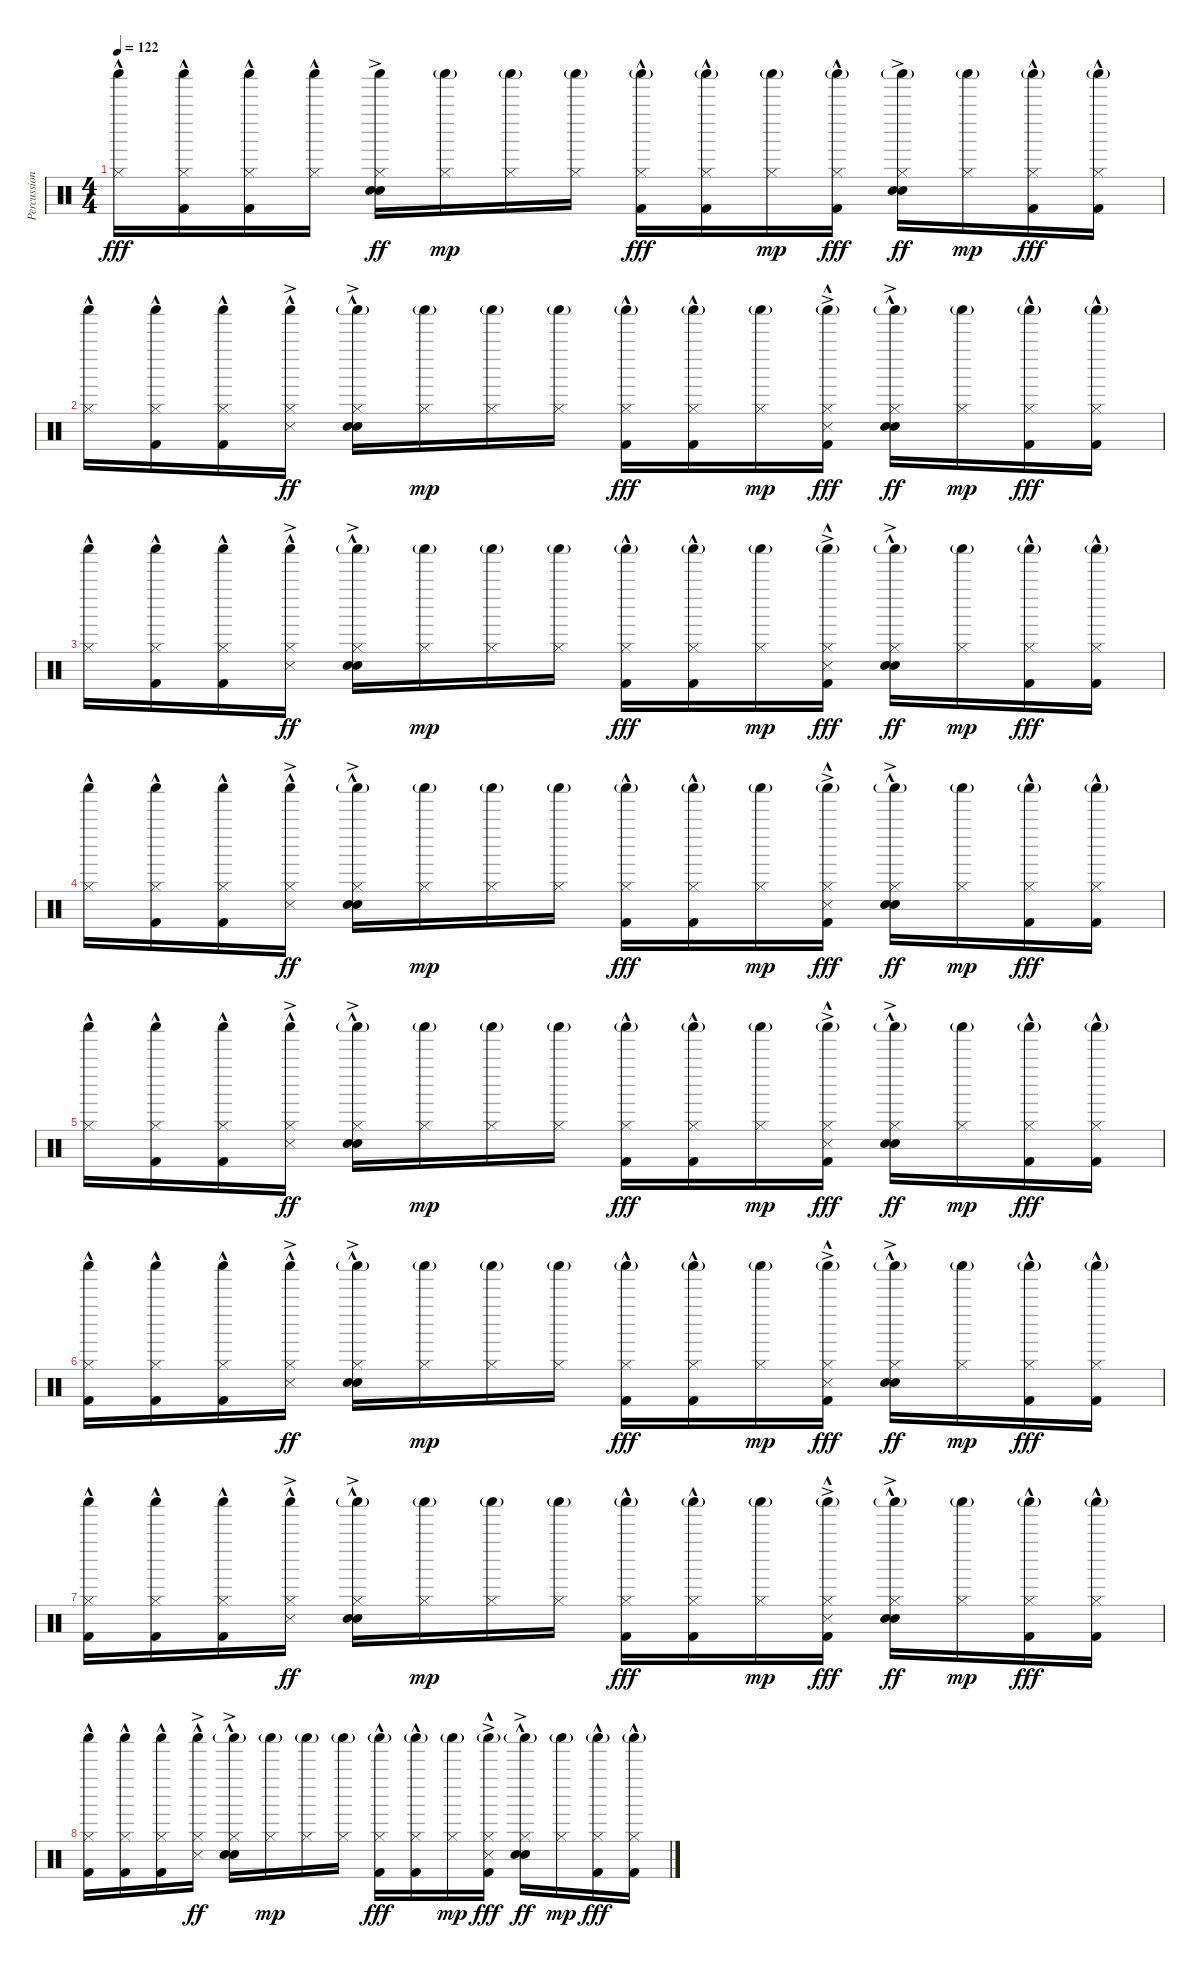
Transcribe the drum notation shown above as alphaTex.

\track ("Percussion" "Percussion") {instrument percussion}
\staff {score}
\articulation defaults
\ts (4 4)
\tempo 122
\clef neutral
\ks c
("Shaker (hit)" "Hi-Hat (closed)"{hac}).16{dy fff} ("Shaker (hit)" "Hi-Hat (closed)"{hac} "Kick (hit) 2"{hac}).16 ("Shaker (hit)" "Hi-Hat (closed)"{hac} "Kick (hit) 2"{hac}).16 ("Shaker (hit)" "Hi-Hat (closed)"{hac}).16 ("Shaker (hit)" "Hi-Hat (closed)" "Hand Clap (hit)" "Snare (hit) 2"{ac}).16{dy ff} ("Shaker (hit)"{g} "Hi-Hat (closed)").16{dy mp} ("Shaker (hit)"{g} "Hi-Hat (closed)").16 ("Shaker (hit)"{g} "Hi-Hat (closed)").16 ("Shaker (hit)"{g} "Hi-Hat (closed)" "Kick (hit) 2"{hac}).16{dy fff} ("Shaker (hit)"{g} "Hi-Hat (closed)" "Kick (hit) 2"{hac}).16 ("Shaker (hit)"{g} "Hi-Hat (closed)").16{dy mp} ("Shaker (hit)"{g} "Hi-Hat (closed)" "Kick (hit) 2"{hac}).16{dy fff} ("Shaker (hit)"{g} "Hi-Hat (closed)" "Hand Clap (hit)"{ac} "Snare (hit) 2"{ac}).16{dy ff} ("Shaker (hit)"{g} "Hi-Hat (closed)").16{dy mp} ("Shaker (hit)"{g} "Hi-Hat (closed)" "Kick (hit) 2"{hac}).16{dy fff} ("Shaker (hit)"{g} "Hi-Hat (closed)" "Kick (hit) 2"{hac}).16 |
("Shaker (hit)" "Hi-Hat (closed)"{hac}).16 ("Shaker (hit)" "Hi-Hat (closed)"{hac} "Kick (hit) 2"{hac}).16 ("Shaker (hit)" "Hi-Hat (closed)"{hac} "Kick (hit) 2"{hac}).16 ("Shaker (hit)" "Hi-Hat (closed)"{hac} "Snare (side stick) 3"{ac}).16{dy ff} ("Shaker (hit)"{g} "Hi-Hat (closed)" "Hand Clap (hit)"{hac} "Snare (hit) 2"{ac}).16 ("Shaker (hit)"{g} "Hi-Hat (closed)").16{dy mp} ("Shaker (hit)"{g} "Hi-Hat (closed)").16 ("Shaker (hit)"{g} "Hi-Hat (closed)").16 ("Shaker (hit)"{g} "Hi-Hat (closed)" "Kick (hit) 2"{hac}).16{dy fff} ("Shaker (hit)"{g} "Hi-Hat (closed)" "Kick (hit) 2"{hac}).16 ("Shaker (hit)"{g} "Hi-Hat (closed)").16{dy mp} ("Shaker (hit)"{g} "Hi-Hat (closed)" "Snare (side stick) 3"{ac} "Kick (hit) 2"{hac}).16{dy fff} ("Shaker (hit)"{g} "Hi-Hat (closed)" "Hand Clap (hit)"{hac} "Snare (hit) 2"{ac}).16{dy ff} ("Shaker (hit)"{g} "Hi-Hat (closed)").16{dy mp} ("Shaker (hit)"{g} "Hi-Hat (closed)" "Kick (hit) 2"{hac}).16{dy fff} ("Shaker (hit)"{g} "Hi-Hat (closed)" "Kick (hit) 2"{hac}).16 |
("Shaker (hit)" "Hi-Hat (closed)"{hac}).16 ("Shaker (hit)" "Hi-Hat (closed)"{hac} "Kick (hit) 2"{hac}).16 ("Shaker (hit)" "Hi-Hat (closed)"{hac} "Kick (hit) 2"{hac}).16 ("Shaker (hit)" "Hi-Hat (closed)"{hac} "Snare (side stick) 3"{ac}).16{dy ff} ("Shaker (hit)"{g} "Hi-Hat (closed)" "Hand Clap (hit)"{hac} "Snare (hit) 2"{ac}).16 ("Shaker (hit)"{g} "Hi-Hat (closed)").16{dy mp} ("Shaker (hit)"{g} "Hi-Hat (closed)").16 ("Shaker (hit)"{g} "Hi-Hat (closed)").16 ("Shaker (hit)"{g} "Hi-Hat (closed)" "Kick (hit) 2"{hac}).16{dy fff} ("Shaker (hit)"{g} "Hi-Hat (closed)" "Kick (hit) 2"{hac}).16 ("Shaker (hit)"{g} "Hi-Hat (closed)").16{dy mp} ("Shaker (hit)"{g} "Hi-Hat (closed)" "Snare (side stick) 3"{ac} "Kick (hit) 2"{hac}).16{dy fff} ("Shaker (hit)"{g} "Hi-Hat (closed)" "Hand Clap (hit)"{hac} "Snare (hit) 2"{ac}).16{dy ff} ("Shaker (hit)"{g} "Hi-Hat (closed)").16{dy mp} ("Shaker (hit)"{g} "Hi-Hat (closed)" "Kick (hit) 2"{hac}).16{dy fff} ("Shaker (hit)"{g} "Hi-Hat (closed)" "Kick (hit) 2"{hac}).16 |
("Shaker (hit)" "Hi-Hat (closed)"{hac}).16 ("Shaker (hit)" "Hi-Hat (closed)"{hac} "Kick (hit) 2"{hac}).16 ("Shaker (hit)" "Hi-Hat (closed)"{hac} "Kick (hit) 2"{hac}).16 ("Shaker (hit)" "Hi-Hat (closed)"{hac} "Snare (side stick) 3"{ac}).16{dy ff} ("Shaker (hit)"{g} "Hi-Hat (closed)" "Hand Clap (hit)"{hac} "Snare (hit) 2"{ac}).16 ("Shaker (hit)"{g} "Hi-Hat (closed)").16{dy mp} ("Shaker (hit)"{g} "Hi-Hat (closed)").16 ("Shaker (hit)"{g} "Hi-Hat (closed)").16 ("Shaker (hit)"{g} "Hi-Hat (closed)" "Kick (hit) 2"{hac}).16{dy fff} ("Shaker (hit)"{g} "Hi-Hat (closed)" "Kick (hit) 2"{hac}).16 ("Shaker (hit)"{g} "Hi-Hat (closed)").16{dy mp} ("Shaker (hit)"{g} "Hi-Hat (closed)" "Snare (side stick) 3"{ac} "Kick (hit) 2"{hac}).16{dy fff} ("Shaker (hit)"{g} "Hi-Hat (closed)" "Hand Clap (hit)"{hac} "Snare (hit) 2"{ac}).16{dy ff} ("Shaker (hit)"{g} "Hi-Hat (closed)").16{dy mp} ("Shaker (hit)"{g} "Hi-Hat (closed)" "Kick (hit) 2"{hac}).16{dy fff} ("Shaker (hit)"{g} "Hi-Hat (closed)" "Kick (hit) 2"{hac}).16 |
("Shaker (hit)" "Hi-Hat (closed)"{hac}).16 ("Shaker (hit)" "Hi-Hat (closed)"{hac} "Kick (hit) 2"{hac}).16 ("Shaker (hit)" "Hi-Hat (closed)"{hac} "Kick (hit) 2"{hac}).16 ("Shaker (hit)" "Hi-Hat (closed)"{hac} "Snare (side stick) 3"{ac}).16{dy ff} ("Shaker (hit)"{g} "Hi-Hat (closed)" "Hand Clap (hit)"{hac} "Snare (hit) 2"{ac}).16 ("Shaker (hit)"{g} "Hi-Hat (closed)").16{dy mp} ("Shaker (hit)"{g} "Hi-Hat (closed)").16 ("Shaker (hit)"{g} "Hi-Hat (closed)").16 ("Shaker (hit)"{g} "Hi-Hat (closed)" "Kick (hit) 2"{hac}).16{dy fff} ("Shaker (hit)"{g} "Hi-Hat (closed)" "Kick (hit) 2"{hac}).16 ("Shaker (hit)"{g} "Hi-Hat (closed)").16{dy mp} ("Shaker (hit)"{g} "Hi-Hat (closed)" "Snare (side stick) 3"{ac} "Kick (hit) 2"{hac}).16{dy fff} ("Shaker (hit)"{g} "Hi-Hat (closed)" "Hand Clap (hit)"{hac} "Snare (hit) 2"{ac}).16{dy ff} ("Shaker (hit)"{g} "Hi-Hat (closed)").16{dy mp} ("Shaker (hit)"{g} "Hi-Hat (closed)" "Kick (hit) 2"{hac}).16{dy fff} ("Shaker (hit)"{g} "Hi-Hat (closed)" "Kick (hit) 2"{hac}).16 |
("Shaker (hit)" "Hi-Hat (closed)"{hac} "Kick (hit) 2").16 ("Shaker (hit)" "Hi-Hat (closed)"{hac} "Kick (hit) 2"{hac}).16 ("Shaker (hit)" "Hi-Hat (closed)"{hac} "Kick (hit) 2"{hac}).16 ("Shaker (hit)" "Hi-Hat (closed)"{hac} "Snare (side stick) 3"{ac}).16{dy ff} ("Shaker (hit)"{g} "Hi-Hat (closed)" "Hand Clap (hit)"{hac} "Snare (hit) 2"{ac}).16 ("Shaker (hit)"{g} "Hi-Hat (closed)").16{dy mp} ("Shaker (hit)"{g} "Hi-Hat (closed)").16 ("Shaker (hit)"{g} "Hi-Hat (closed)").16 ("Shaker (hit)"{g} "Hi-Hat (closed)" "Kick (hit) 2"{hac}).16{dy fff} ("Shaker (hit)"{g} "Hi-Hat (closed)" "Kick (hit) 2"{hac}).16 ("Shaker (hit)"{g} "Hi-Hat (closed)").16{dy mp} ("Shaker (hit)"{g} "Hi-Hat (closed)" "Snare (side stick) 3"{ac} "Kick (hit) 2"{hac}).16{dy fff} ("Shaker (hit)"{g} "Hi-Hat (closed)" "Hand Clap (hit)"{hac} "Snare (hit) 2"{ac}).16{dy ff} ("Shaker (hit)"{g} "Hi-Hat (closed)").16{dy mp} ("Shaker (hit)"{g} "Hi-Hat (closed)" "Kick (hit) 2"{hac}).16{dy fff} ("Shaker (hit)"{g} "Hi-Hat (closed)" "Kick (hit) 2"{hac}).16 |
("Shaker (hit)" "Hi-Hat (closed)"{hac} "Kick (hit) 2").16 ("Shaker (hit)" "Hi-Hat (closed)"{hac} "Kick (hit) 2"{hac}).16 ("Shaker (hit)" "Hi-Hat (closed)"{hac} "Kick (hit) 2"{hac}).16 ("Shaker (hit)" "Hi-Hat (closed)"{hac} "Snare (side stick) 3"{ac}).16{dy ff} ("Shaker (hit)"{g} "Hi-Hat (closed)" "Hand Clap (hit)"{hac} "Snare (hit) 2"{ac}).16 ("Shaker (hit)"{g} "Hi-Hat (closed)").16{dy mp} ("Shaker (hit)"{g} "Hi-Hat (closed)").16 ("Shaker (hit)"{g} "Hi-Hat (closed)").16 ("Shaker (hit)"{g} "Hi-Hat (closed)" "Kick (hit) 2"{hac}).16{dy fff} ("Shaker (hit)"{g} "Hi-Hat (closed)" "Kick (hit) 2"{hac}).16 ("Shaker (hit)"{g} "Hi-Hat (closed)").16{dy mp} ("Shaker (hit)"{g} "Hi-Hat (closed)" "Snare (side stick) 3"{ac} "Kick (hit) 2"{hac}).16{dy fff} ("Shaker (hit)"{g} "Hi-Hat (closed)" "Hand Clap (hit)"{hac} "Snare (hit) 2"{ac}).16{dy ff} ("Shaker (hit)"{g} "Hi-Hat (closed)").16{dy mp} ("Shaker (hit)"{g} "Hi-Hat (closed)" "Kick (hit) 2"{hac}).16{dy fff} ("Shaker (hit)"{g} "Hi-Hat (closed)" "Kick (hit) 2"{hac}).16 |
("Shaker (hit)" "Hi-Hat (closed)"{hac} "Kick (hit) 2").16 ("Shaker (hit)" "Hi-Hat (closed)"{hac} "Kick (hit) 2"{hac}).16 ("Shaker (hit)" "Hi-Hat (closed)"{hac} "Kick (hit) 2"{hac}).16 ("Shaker (hit)" "Hi-Hat (closed)"{hac} "Snare (side stick) 3"{ac}).16{dy ff} ("Shaker (hit)"{g} "Hi-Hat (closed)" "Hand Clap (hit)"{hac} "Snare (hit) 2"{ac}).16 ("Shaker (hit)"{g} "Hi-Hat (closed)").16{dy mp} ("Shaker (hit)"{g} "Hi-Hat (closed)").16 ("Shaker (hit)"{g} "Hi-Hat (closed)").16 ("Shaker (hit)"{g} "Hi-Hat (closed)" "Kick (hit) 2"{hac}).16{dy fff} ("Shaker (hit)"{g} "Hi-Hat (closed)" "Kick (hit) 2"{hac}).16 ("Shaker (hit)"{g} "Hi-Hat (closed)").16{dy mp} ("Shaker (hit)"{g} "Hi-Hat (closed)" "Snare (side stick) 3"{ac} "Kick (hit) 2"{hac}).16{dy fff} ("Shaker (hit)"{g} "Hi-Hat (closed)" "Hand Clap (hit)"{hac} "Snare (hit) 2"{ac}).16{dy ff} ("Shaker (hit)"{g} "Hi-Hat (closed)").16{dy mp} ("Shaker (hit)"{g} "Hi-Hat (closed)" "Kick (hit) 2"{hac}).16{dy fff} ("Shaker (hit)"{g} "Hi-Hat (closed)" "Kick (hit) 2"{hac}).16
